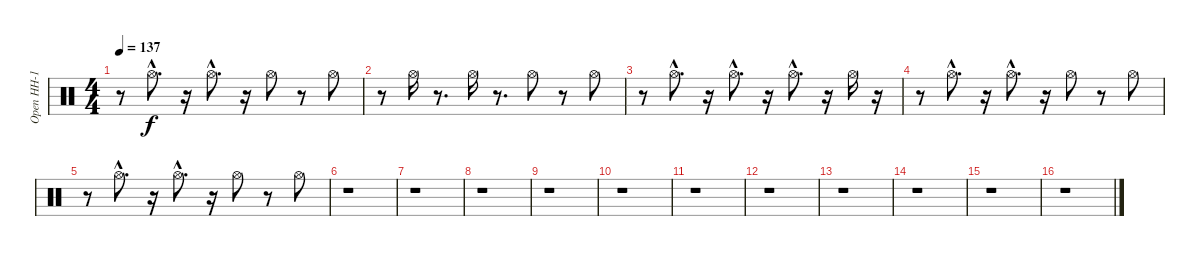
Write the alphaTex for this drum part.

\track ("Open HH-1" "Open HH-1") {instrument percussion}
\staff {score}
\articulation defaults
\ts (4 4)
\tempo 137
\clef neutral
\ks c
r.8{dy f} "Hi-Hat (open)"{hac}.8{d} r.16 "Hi-Hat (open)"{hac}.8{d} r.16 "Hi-Hat (open)".8 r.8 "Hi-Hat (open)".8 |
r.8 "Hi-Hat (open)".16 r.8{d} "Hi-Hat (open)".16 r.8{d} "Hi-Hat (open)".8 r.8 "Hi-Hat (open)".8 |
r.8 "Hi-Hat (open)"{hac}.8{d} r.16 "Hi-Hat (open)"{hac}.8{d} r.16 "Hi-Hat (open)"{hac}.8{d} r.16 "Hi-Hat (open)".16 r.16 |
r.8 "Hi-Hat (open)"{hac}.8{d} r.16 "Hi-Hat (open)"{hac}.8{d} r.16 "Hi-Hat (open)".8 r.8 "Hi-Hat (open)".8 |
r.8 "Hi-Hat (open)"{hac}.8{d} r.16 "Hi-Hat (open)"{hac}.8{d} r.16 "Hi-Hat (open)".8 r.8 "Hi-Hat (open)".8 |
r.1 |
r.1 |
r.1 |
r.1 |
r.1 |
r.1 |
r.1 |
r.1 |
r.1 |
r.1 |
r.1
